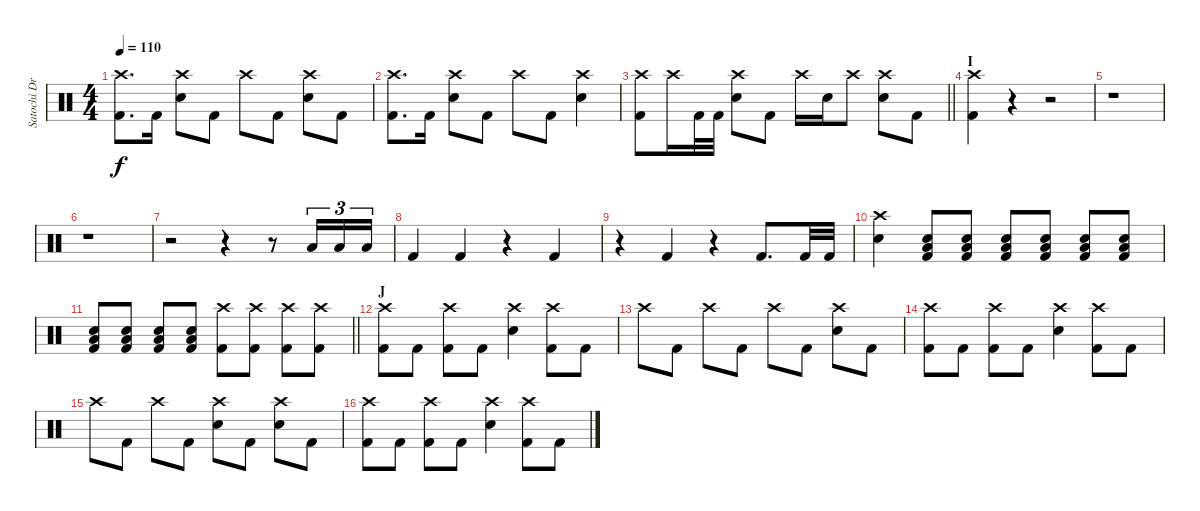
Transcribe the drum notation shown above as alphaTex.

\track ("Satochi Drums" "Satochi Dr") {instrument percussion}
\staff {score}
\articulation defaults
\ts (4 4)
\tempo 110
\clef neutral
\ks c
("Crash high (hit)" "Kick (hit) 2").8{d dy f} "Kick (hit) 2".16 ("Crash high (hit)" "Snare (hit) 2").8 "Kick (hit) 2".8 "Crash high (hit)".8 "Kick (hit) 2".8 ("Crash high (hit)" "Snare (hit) 2").8 "Kick (hit) 2".8 |
("Crash high (hit)" "Kick (hit) 2").8{d} "Kick (hit) 2".16 ("Crash high (hit)" "Snare (hit) 2").8 "Kick (hit) 2".8 "Crash high (hit)".8 "Kick (hit) 2".8 ("Crash high (hit)" "Snare (hit) 2").4 |
\barLineRight lightlight
("Crash high (hit)" "Kick (hit) 2").8 "Crash high (hit)".16 "Kick (hit) 2".32 "Kick (hit) 2".32 ("Crash high (hit)" "Snare (hit) 2").8 "Kick (hit) 2".8 "Crash high (hit)".16 "Snare (hit) 2".16 "Crash high (hit)".8 ("Crash high (hit)" "Snare (hit) 2").8 "Kick (hit) 2".8 |
\section ("" "I")
("Crash high (hit)" "Kick (hit) 2").4 r.4 r.2 |
r.1 |
r.1 |
r.2 r.4 r.8 "Low Floor Tom (hit)".16{tu (3 2)} "Low Tom (hit)".16{tu (3 2)} "Low Floor Tom (hit)".16{tu (3 2)} |
"Kick (hit) 2".4 "Kick (hit) 2".4 r.4 "Kick (hit) 2".4 |
r.4 "Kick (hit) 2".4 r.4 "Kick (hit) 2".8{d} "Kick (hit) 2".32 "Kick (hit) 2".32 |
("Crash high (hit)" "Snare (hit) 2").4 ("Snare (hit) 2" "Low Floor Tom (hit)" "Kick (hit) 2").8 ("Snare (hit) 2" "Low Floor Tom (hit)" "Kick (hit) 2").8 ("Snare (hit) 2" "Low Floor Tom (hit)" "Kick (hit) 2").8 ("Snare (hit) 2" "Low Floor Tom (hit)" "Kick (hit) 2").8 ("Snare (hit) 2" "Low Floor Tom (hit)" "Kick (hit) 2").8 ("Snare (hit) 2" "Low Floor Tom (hit)" "Kick (hit) 2").8 |
\barLineRight lightlight
("Snare (hit) 2" "Low Floor Tom (hit)" "Kick (hit) 2").8 ("Snare (hit) 2" "Low Floor Tom (hit)" "Kick (hit) 2").8 ("Snare (hit) 2" "Low Floor Tom (hit)" "Kick (hit) 2").8 ("Snare (hit) 2" "Low Floor Tom (hit)" "Kick (hit) 2").8 ("Crash high (hit)" "Kick (hit) 2").8 ("Crash high (hit)" "Kick (hit) 2").8 ("Crash high (hit)" "Kick (hit) 2").8 ("Crash high (hit)" "Kick (hit) 2").8 |
\section ("" "J")
("Crash high (hit)" "Kick (hit) 2").8 "Kick (hit) 2".8 ("Crash high (hit)" "Kick (hit) 2").8 "Kick (hit) 2".8 ("Crash high (hit)" "Snare (hit) 2").4 ("Crash high (hit)" "Kick (hit) 2").8 "Kick (hit) 2".8 |
"Crash high (hit)".8 "Kick (hit) 2".8 "Crash high (hit)".8 "Kick (hit) 2".8 "Crash high (hit)".8 "Kick (hit) 2".8 ("Crash high (hit)" "Snare (hit) 2").8 "Kick (hit) 2".8 |
("Crash high (hit)" "Kick (hit) 2").8 "Kick (hit) 2".8 ("Crash high (hit)" "Kick (hit) 2").8 "Kick (hit) 2".8 ("Crash high (hit)" "Snare (hit) 2").4 ("Crash high (hit)" "Kick (hit) 2").8 "Kick (hit) 2".8 |
"Crash high (hit)".8 "Kick (hit) 2".8 "Crash high (hit)".8 "Kick (hit) 2".8 ("Crash high (hit)" "Snare (hit) 2").8 "Kick (hit) 2".8 ("Crash high (hit)" "Snare (hit) 2").8 "Kick (hit) 2".8 |
("Crash high (hit)" "Kick (hit) 2").8 "Kick (hit) 2".8 ("Crash high (hit)" "Kick (hit) 2").8 "Kick (hit) 2".8 ("Crash high (hit)" "Snare (hit) 2").4 ("Crash high (hit)" "Kick (hit) 2").8 "Kick (hit) 2".8
